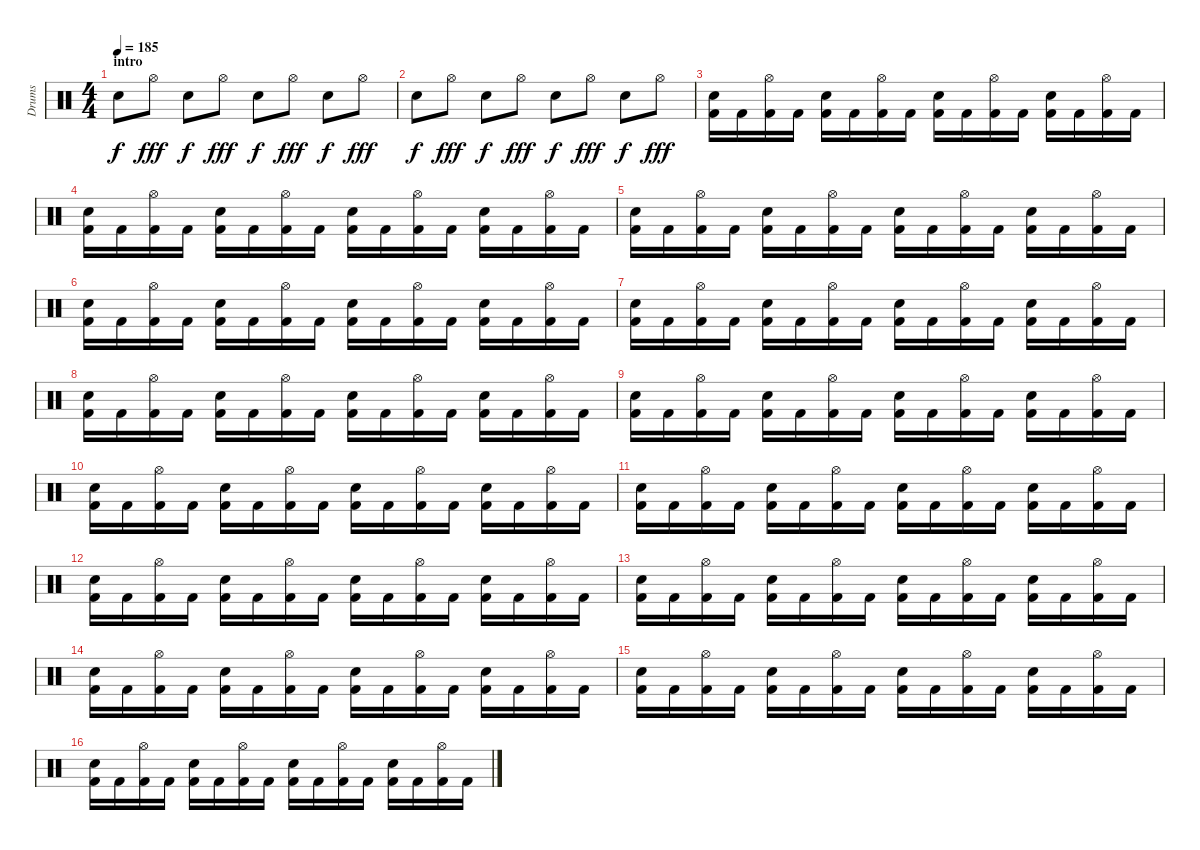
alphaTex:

\track ("Drums" "Drums") {instrument percussion}
\staff {score}
\articulation defaults
\ts (4 4)
\section ("" "intro")
\tempo 185
\clef neutral
\ks c "Electric Snare (hit)".8{dy f} "Hi-Hat (open)".8{dy fff} "Electric Snare (hit)".8{dy f} "Hi-Hat (open)".8{dy fff} "Electric Snare (hit)".8{dy f} "Hi-Hat (open)".8{dy fff} "Electric Snare (hit)".8{dy f} "Hi-Hat (open)".8{dy fff}
|
"Electric Snare (hit)".8{dy f} "Hi-Hat (open)".8{dy fff} "Electric Snare (hit)".8{dy f} "Hi-Hat (open)".8{dy fff} "Electric Snare (hit)".8{dy f} "Hi-Hat (open)".8{dy fff} "Electric Snare (hit)".8{dy f} "Hi-Hat (open)".8{dy fff} |
("Electric Snare (hit)" "Kick (hit) 2").16 "Kick (hit) 2".16 ("Hi-Hat (open)" "Kick (hit) 2").16 "Kick (hit) 2".16 ("Electric Snare (hit)" "Kick (hit) 2").16 "Kick (hit) 2".16 ("Hi-Hat (open)" "Kick (hit) 2").16 "Kick (hit) 2".16 ("Electric Snare (hit)" "Kick (hit) 2").16 "Kick (hit) 2".16 ("Hi-Hat (open)" "Kick (hit) 2").16 "Kick (hit) 2".16 ("Electric Snare (hit)" "Kick (hit) 2").16 "Kick (hit) 2".16 ("Hi-Hat (open)" "Kick (hit) 2").16 "Kick (hit) 2".16 |
("Electric Snare (hit)" "Kick (hit) 2").16 "Kick (hit) 2".16 ("Hi-Hat (open)" "Kick (hit) 2").16 "Kick (hit) 2".16 ("Electric Snare (hit)" "Kick (hit) 2").16 "Kick (hit) 2".16 ("Hi-Hat (open)" "Kick (hit) 2").16 "Kick (hit) 2".16 ("Electric Snare (hit)" "Kick (hit) 2").16 "Kick (hit) 2".16 ("Hi-Hat (open)" "Kick (hit) 2").16 "Kick (hit) 2".16 ("Electric Snare (hit)" "Kick (hit) 2").16 "Kick (hit) 2".16 ("Hi-Hat (open)" "Kick (hit) 2").16 "Kick (hit) 2".16 |
("Electric Snare (hit)" "Kick (hit) 2").16 "Kick (hit) 2".16 ("Hi-Hat (open)" "Kick (hit) 2").16 "Kick (hit) 2".16 ("Electric Snare (hit)" "Kick (hit) 2").16 "Kick (hit) 2".16 ("Hi-Hat (open)" "Kick (hit) 2").16 "Kick (hit) 2".16 ("Electric Snare (hit)" "Kick (hit) 2").16 "Kick (hit) 2".16 ("Hi-Hat (open)" "Kick (hit) 2").16 "Kick (hit) 2".16 ("Electric Snare (hit)" "Kick (hit) 2").16 "Kick (hit) 2".16 ("Hi-Hat (open)" "Kick (hit) 2").16 "Kick (hit) 2".16 |
("Electric Snare (hit)" "Kick (hit) 2").16 "Kick (hit) 2".16 ("Hi-Hat (open)" "Kick (hit) 2").16 "Kick (hit) 2".16 ("Electric Snare (hit)" "Kick (hit) 2").16 "Kick (hit) 2".16 ("Hi-Hat (open)" "Kick (hit) 2").16 "Kick (hit) 2".16 ("Electric Snare (hit)" "Kick (hit) 2").16 "Kick (hit) 2".16 ("Hi-Hat (open)" "Kick (hit) 2").16 "Kick (hit) 2".16 ("Electric Snare (hit)" "Kick (hit) 2").16 "Kick (hit) 2".16 ("Hi-Hat (open)" "Kick (hit) 2").16 "Kick (hit) 2".16 |
("Electric Snare (hit)" "Kick (hit) 2").16 "Kick (hit) 2".16 ("Hi-Hat (open)" "Kick (hit) 2").16 "Kick (hit) 2".16 ("Electric Snare (hit)" "Kick (hit) 2").16 "Kick (hit) 2".16 ("Hi-Hat (open)" "Kick (hit) 2").16 "Kick (hit) 2".16 ("Electric Snare (hit)" "Kick (hit) 2").16 "Kick (hit) 2".16 ("Hi-Hat (open)" "Kick (hit) 2").16 "Kick (hit) 2".16 ("Electric Snare (hit)" "Kick (hit) 2").16 "Kick (hit) 2".16 ("Hi-Hat (open)" "Kick (hit) 2").16 "Kick (hit) 2".16 |
("Electric Snare (hit)" "Kick (hit) 2").16 "Kick (hit) 2".16 ("Hi-Hat (open)" "Kick (hit) 2").16 "Kick (hit) 2".16 ("Electric Snare (hit)" "Kick (hit) 2").16 "Kick (hit) 2".16 ("Hi-Hat (open)" "Kick (hit) 2").16 "Kick (hit) 2".16 ("Electric Snare (hit)" "Kick (hit) 2").16 "Kick (hit) 2".16 ("Hi-Hat (open)" "Kick (hit) 2").16 "Kick (hit) 2".16 ("Electric Snare (hit)" "Kick (hit) 2").16 "Kick (hit) 2".16 ("Hi-Hat (open)" "Kick (hit) 2").16 "Kick (hit) 2".16 |
("Electric Snare (hit)" "Kick (hit) 2").16 "Kick (hit) 2".16 ("Hi-Hat (open)" "Kick (hit) 2").16 "Kick (hit) 2".16 ("Electric Snare (hit)" "Kick (hit) 2").16 "Kick (hit) 2".16 ("Hi-Hat (open)" "Kick (hit) 2").16 "Kick (hit) 2".16 ("Electric Snare (hit)" "Kick (hit) 2").16 "Kick (hit) 2".16 ("Hi-Hat (open)" "Kick (hit) 2").16 "Kick (hit) 2".16 ("Electric Snare (hit)" "Kick (hit) 2").16 "Kick (hit) 2".16 ("Hi-Hat (open)" "Kick (hit) 2").16 "Kick (hit) 2".16 |
("Electric Snare (hit)" "Kick (hit) 2").16 "Kick (hit) 2".16 ("Hi-Hat (open)" "Kick (hit) 2").16 "Kick (hit) 2".16 ("Electric Snare (hit)" "Kick (hit) 2").16 "Kick (hit) 2".16 ("Hi-Hat (open)" "Kick (hit) 2").16 "Kick (hit) 2".16 ("Electric Snare (hit)" "Kick (hit) 2").16 "Kick (hit) 2".16 ("Hi-Hat (open)" "Kick (hit) 2").16 "Kick (hit) 2".16 ("Electric Snare (hit)" "Kick (hit) 2").16 "Kick (hit) 2".16 ("Hi-Hat (open)" "Kick (hit) 2").16 "Kick (hit) 2".16 |
("Electric Snare (hit)" "Kick (hit) 2").16 "Kick (hit) 2".16 ("Hi-Hat (open)" "Kick (hit) 2").16 "Kick (hit) 2".16 ("Electric Snare (hit)" "Kick (hit) 2").16 "Kick (hit) 2".16 ("Hi-Hat (open)" "Kick (hit) 2").16 "Kick (hit) 2".16 ("Electric Snare (hit)" "Kick (hit) 2").16 "Kick (hit) 2".16 ("Hi-Hat (open)" "Kick (hit) 2").16 "Kick (hit) 2".16 ("Electric Snare (hit)" "Kick (hit) 2").16 "Kick (hit) 2".16 ("Hi-Hat (open)" "Kick (hit) 2").16 "Kick (hit) 2".16 |
("Electric Snare (hit)" "Kick (hit) 2").16 "Kick (hit) 2".16 ("Hi-Hat (open)" "Kick (hit) 2").16 "Kick (hit) 2".16 ("Electric Snare (hit)" "Kick (hit) 2").16 "Kick (hit) 2".16 ("Hi-Hat (open)" "Kick (hit) 2").16 "Kick (hit) 2".16 ("Electric Snare (hit)" "Kick (hit) 2").16 "Kick (hit) 2".16 ("Hi-Hat (open)" "Kick (hit) 2").16 "Kick (hit) 2".16 ("Electric Snare (hit)" "Kick (hit) 2").16 "Kick (hit) 2".16 ("Hi-Hat (open)" "Kick (hit) 2").16 "Kick (hit) 2".16 |
("Electric Snare (hit)" "Kick (hit) 2").16 "Kick (hit) 2".16 ("Hi-Hat (open)" "Kick (hit) 2").16 "Kick (hit) 2".16 ("Electric Snare (hit)" "Kick (hit) 2").16 "Kick (hit) 2".16 ("Hi-Hat (open)" "Kick (hit) 2").16 "Kick (hit) 2".16 ("Electric Snare (hit)" "Kick (hit) 2").16 "Kick (hit) 2".16 ("Hi-Hat (open)" "Kick (hit) 2").16 "Kick (hit) 2".16 ("Electric Snare (hit)" "Kick (hit) 2").16 "Kick (hit) 2".16 ("Hi-Hat (open)" "Kick (hit) 2").16 "Kick (hit) 2".16 |
("Electric Snare (hit)" "Kick (hit) 2").16 "Kick (hit) 2".16 ("Hi-Hat (open)" "Kick (hit) 2").16 "Kick (hit) 2".16 ("Electric Snare (hit)" "Kick (hit) 2").16 "Kick (hit) 2".16 ("Hi-Hat (open)" "Kick (hit) 2").16 "Kick (hit) 2".16 ("Electric Snare (hit)" "Kick (hit) 2").16 "Kick (hit) 2".16 ("Hi-Hat (open)" "Kick (hit) 2").16 "Kick (hit) 2".16 ("Electric Snare (hit)" "Kick (hit) 2").16 "Kick (hit) 2".16 ("Hi-Hat (open)" "Kick (hit) 2").16 "Kick (hit) 2".16 |
("Electric Snare (hit)" "Kick (hit) 2").16 "Kick (hit) 2".16 ("Hi-Hat (open)" "Kick (hit) 2").16 "Kick (hit) 2".16 ("Electric Snare (hit)" "Kick (hit) 2").16 "Kick (hit) 2".16 ("Hi-Hat (open)" "Kick (hit) 2").16 "Kick (hit) 2".16 ("Electric Snare (hit)" "Kick (hit) 2").16 "Kick (hit) 2".16 ("Hi-Hat (open)" "Kick (hit) 2").16 "Kick (hit) 2".16 ("Electric Snare (hit)" "Kick (hit) 2").16 "Kick (hit) 2".16 ("Hi-Hat (open)" "Kick (hit) 2").16 "Kick (hit) 2".16 |
("Electric Snare (hit)" "Kick (hit) 2").16 "Kick (hit) 2".16 ("Hi-Hat (open)" "Kick (hit) 2").16 "Kick (hit) 2".16 ("Electric Snare (hit)" "Kick (hit) 2").16 "Kick (hit) 2".16 ("Hi-Hat (open)" "Kick (hit) 2").16 "Kick (hit) 2".16 ("Electric Snare (hit)" "Kick (hit) 2").16 "Kick (hit) 2".16 ("Hi-Hat (open)" "Kick (hit) 2").16 "Kick (hit) 2".16 ("Electric Snare (hit)" "Kick (hit) 2").16 "Kick (hit) 2".16 ("Hi-Hat (open)" "Kick (hit) 2").16 "Kick (hit) 2".16
